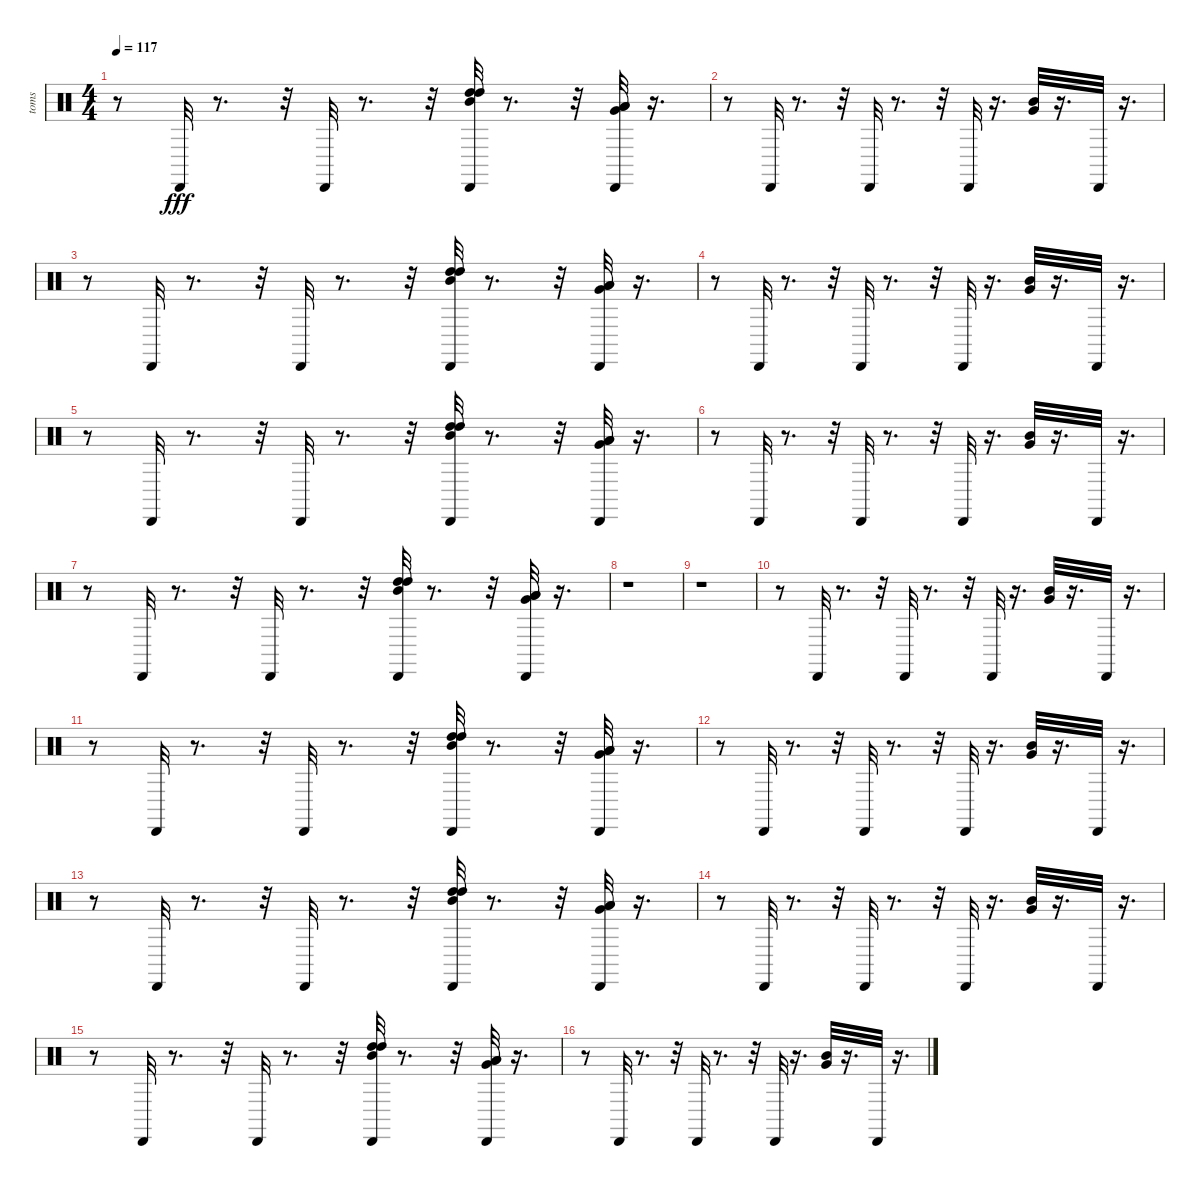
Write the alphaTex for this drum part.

\track ("toms" "toms") {instrument percussion}
\staff {score}
\articulation defaults
\ts (4 4)
\tempo 117
\clef neutral
\ks c
r.8{dy fff} "Cabasa (hit)".32 r.8{d} r.32 "Cabasa (hit)".32 r.8{d} r.32 ("High Tom (hit)" "High Tom (hit)" "Mid Tom (hit)" "Cabasa (hit)").32 r.8{d} r.32 ("Low Tom (hit)" "Low Tom (hit)" "Very Low Tom (hit)" "Cabasa (hit)").32 r.16{d} |
r.8 "Cabasa (hit)".32 r.8{d} r.32 "Cabasa (hit)".32 r.8{d} r.32 "Cabasa (hit)".32 r.16{d} ("Very Low Tom (hit)" "Mid Tom (hit)").32 r.16{d} "Cabasa (hit)".32 r.16{d} |
r.8 "Cabasa (hit)".32 r.8{d} r.32 "Cabasa (hit)".32 r.8{d} r.32 ("High Tom (hit)" "High Tom (hit)" "Mid Tom (hit)" "Cabasa (hit)").32 r.8{d} r.32 ("Low Tom (hit)" "Low Tom (hit)" "Very Low Tom (hit)" "Cabasa (hit)").32 r.16{d} |
r.8 "Cabasa (hit)".32 r.8{d} r.32 "Cabasa (hit)".32 r.8{d} r.32 "Cabasa (hit)".32 r.16{d} ("Very Low Tom (hit)" "Mid Tom (hit)").32 r.16{d} "Cabasa (hit)".32 r.16{d} |
r.8 "Cabasa (hit)".32 r.8{d} r.32 "Cabasa (hit)".32 r.8{d} r.32 ("High Tom (hit)" "High Tom (hit)" "Mid Tom (hit)" "Cabasa (hit)").32 r.8{d} r.32 ("Low Tom (hit)" "Low Tom (hit)" "Very Low Tom (hit)" "Cabasa (hit)").32 r.16{d} |
r.8 "Cabasa (hit)".32 r.8{d} r.32 "Cabasa (hit)".32 r.8{d} r.32 "Cabasa (hit)".32 r.16{d} ("Very Low Tom (hit)" "Mid Tom (hit)").32 r.16{d} "Cabasa (hit)".32 r.16{d} |
r.8 "Cabasa (hit)".32 r.8{d} r.32 "Cabasa (hit)".32 r.8{d} r.32 ("High Tom (hit)" "High Tom (hit)" "Mid Tom (hit)" "Cabasa (hit)").32 r.8{d} r.32 ("Low Tom (hit)" "Low Tom (hit)" "Very Low Tom (hit)" "Cabasa (hit)").32 r.16{d} |
r.1 |
r.1 |
r.8 "Cabasa (hit)".32 r.8{d} r.32 "Cabasa (hit)".32 r.8{d} r.32 "Cabasa (hit)".32 r.16{d} ("Very Low Tom (hit)" "Mid Tom (hit)").32 r.16{d} "Cabasa (hit)".32 r.16{d} |
r.8 "Cabasa (hit)".32 r.8{d} r.32 "Cabasa (hit)".32 r.8{d} r.32 ("High Tom (hit)" "High Tom (hit)" "Mid Tom (hit)" "Cabasa (hit)").32 r.8{d} r.32 ("Low Tom (hit)" "Low Tom (hit)" "Very Low Tom (hit)" "Cabasa (hit)").32 r.16{d} |
r.8 "Cabasa (hit)".32 r.8{d} r.32 "Cabasa (hit)".32 r.8{d} r.32 "Cabasa (hit)".32 r.16{d} ("Very Low Tom (hit)" "Mid Tom (hit)").32 r.16{d} "Cabasa (hit)".32 r.16{d} |
r.8 "Cabasa (hit)".32 r.8{d} r.32 "Cabasa (hit)".32 r.8{d} r.32 ("High Tom (hit)" "High Tom (hit)" "Mid Tom (hit)" "Cabasa (hit)").32 r.8{d} r.32 ("Low Tom (hit)" "Low Tom (hit)" "Very Low Tom (hit)" "Cabasa (hit)").32 r.16{d} |
r.8 "Cabasa (hit)".32 r.8{d} r.32 "Cabasa (hit)".32 r.8{d} r.32 "Cabasa (hit)".32 r.16{d} ("Very Low Tom (hit)" "Mid Tom (hit)").32 r.16{d} "Cabasa (hit)".32 r.16{d} |
r.8 "Cabasa (hit)".32 r.8{d} r.32 "Cabasa (hit)".32 r.8{d} r.32 ("High Tom (hit)" "High Tom (hit)" "Mid Tom (hit)" "Cabasa (hit)").32 r.8{d} r.32 ("Low Tom (hit)" "Low Tom (hit)" "Very Low Tom (hit)" "Cabasa (hit)").32 r.16{d} |
r.8 "Cabasa (hit)".32 r.8{d} r.32 "Cabasa (hit)".32 r.8{d} r.32 "Cabasa (hit)".32 r.16{d} ("Very Low Tom (hit)" "Mid Tom (hit)").32 r.16{d} "Cabasa (hit)".32 r.16{d}
